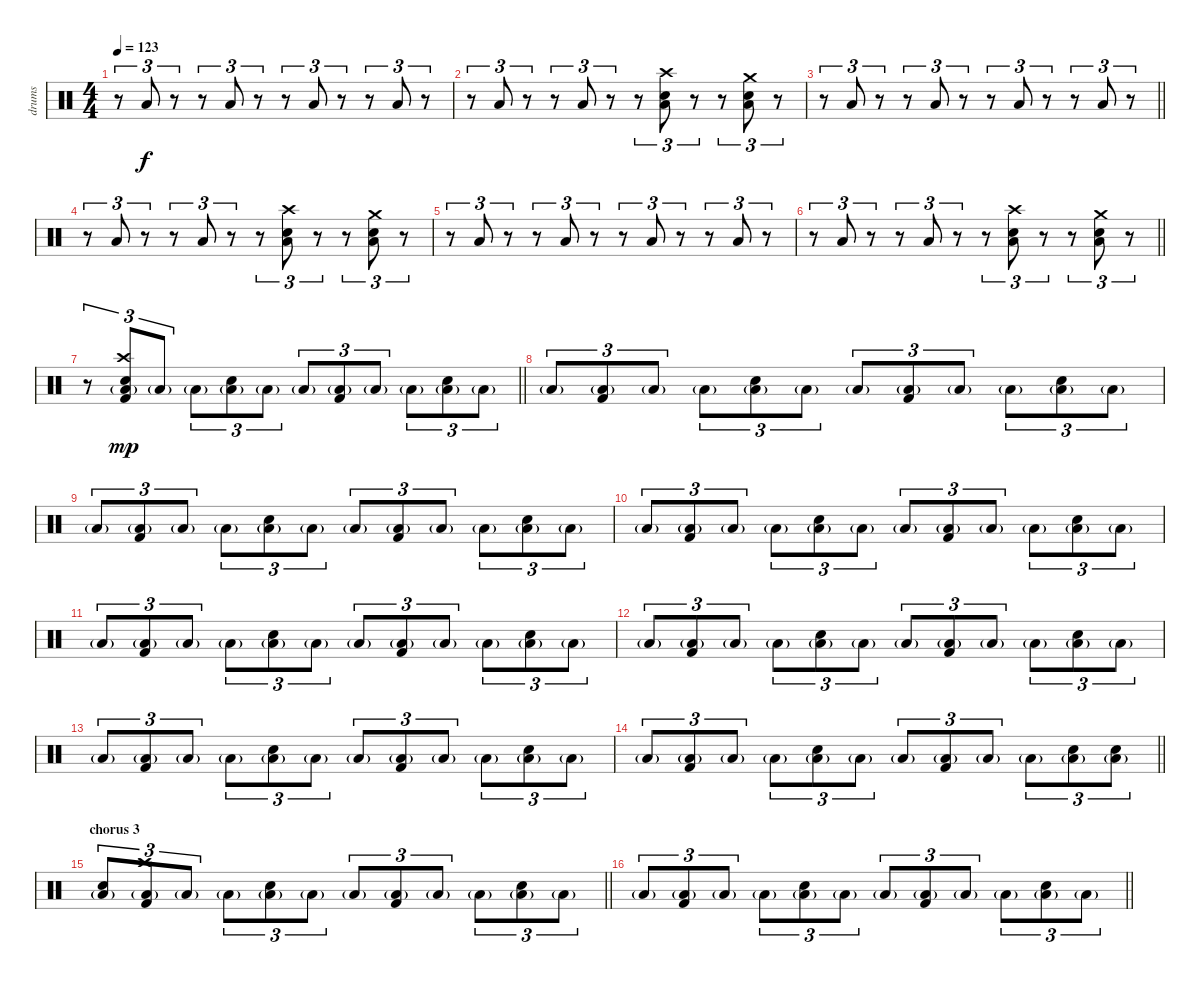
\track ("drums" "drums") {instrument percussion}
\staff {score}
\articulation defaults
\ts (4 4)
\tempo 123
\clef neutral
\ks c
r.8{tu (3 2) dy f} "Low Floor Tom (hit)".8{tu (3 2)} r.8{tu (3 2)} r.8{tu (3 2)} "Low Floor Tom (hit)".8{tu (3 2)} r.8{tu (3 2)} r.8{tu (3 2)} "Low Floor Tom (hit)".8{tu (3 2)} r.8{tu (3 2)} r.8{tu (3 2)} "Low Floor Tom (hit)".8{tu (3 2)} r.8{tu (3 2)} |
r.8{tu (3 2)} "Low Floor Tom (hit)".8{tu (3 2)} r.8{tu (3 2)} r.8{tu (3 2)} "Low Floor Tom (hit)".8{tu (3 2)} r.8{tu (3 2)} r.8{tu (3 2)} ("Low Floor Tom (hit)" "Electric Snare (hit)" "Crash high (hit)").8{tu (3 2)} r.8{tu (3 2)} r.8{tu (3 2)} ("Low Floor Tom (hit)" "Electric Snare (hit)" "Crash medium (hit)").8{tu (3 2)} r.8{tu (3 2)} |
\barLineRight lightlight
r.8{tu (3 2)} "Low Floor Tom (hit)".8{tu (3 2)} r.8{tu (3 2)} r.8{tu (3 2)} "Low Floor Tom (hit)".8{tu (3 2)} r.8{tu (3 2)} r.8{tu (3 2)} "Low Floor Tom (hit)".8{tu (3 2)} r.8{tu (3 2)} r.8{tu (3 2)} "Low Floor Tom (hit)".8{tu (3 2)} r.8{tu (3 2)} |
r.8{tu (3 2)} "Low Floor Tom (hit)".8{tu (3 2)} r.8{tu (3 2)} r.8{tu (3 2)} "Low Floor Tom (hit)".8{tu (3 2)} r.8{tu (3 2)} r.8{tu (3 2)} ("Low Floor Tom (hit)" "Electric Snare (hit)" "Crash high (hit)").8{tu (3 2)} r.8{tu (3 2)} r.8{tu (3 2)} ("Low Floor Tom (hit)" "Electric Snare (hit)" "Crash medium (hit)").8{tu (3 2)} r.8{tu (3 2)} |
r.8{tu (3 2)} "Low Floor Tom (hit)".8{tu (3 2)} r.8{tu (3 2)} r.8{tu (3 2)} "Low Floor Tom (hit)".8{tu (3 2)} r.8{tu (3 2)} r.8{tu (3 2)} "Low Floor Tom (hit)".8{tu (3 2)} r.8{tu (3 2)} r.8{tu (3 2)} "Low Floor Tom (hit)".8{tu (3 2)} r.8{tu (3 2)} |
\barLineRight lightlight
r.8{tu (3 2)} "Low Floor Tom (hit)".8{tu (3 2)} r.8{tu (3 2)} r.8{tu (3 2)} "Low Floor Tom (hit)".8{tu (3 2)} r.8{tu (3 2)} r.8{tu (3 2)} ("Low Floor Tom (hit)" "Electric Snare (hit)" "Crash high (hit)").8{tu (3 2)} r.8{tu (3 2)} r.8{tu (3 2)} ("Low Floor Tom (hit)" "Electric Snare (hit)" "Crash medium (hit)").8{tu (3 2)} r.8{tu (3 2)} |
\barLineRight lightlight
r.8{tu (3 2)} ("Low Floor Tom (hit)"{g} "Kick (hit) 2" "Electric Snare (hit)" "Crash high (hit)").8{tu (3 2) dy mp} "Low Floor Tom (hit)"{g}.8{tu (3 2)} "Low Floor Tom (hit)"{g}.8{tu (3 2)} ("Low Floor Tom (hit)"{g} "Electric Snare (hit)").8{tu (3 2)} "Low Floor Tom (hit)"{g}.8{tu (3 2)} "Low Floor Tom (hit)"{g}.8{tu (3 2)} ("Low Floor Tom (hit)"{g} "Kick (hit) 2").8{tu (3 2)} "Low Floor Tom (hit)"{g}.8{tu (3 2)} "Low Floor Tom (hit)"{g}.8{tu (3 2)} ("Low Floor Tom (hit)"{g} "Electric Snare (hit)").8{tu (3 2)} "Low Floor Tom (hit)"{g}.8{tu (3 2)} |
"Low Floor Tom (hit)"{g}.8{tu (3 2)} ("Low Floor Tom (hit)"{g} "Kick (hit) 2").8{tu (3 2)} "Low Floor Tom (hit)"{g}.8{tu (3 2)} "Low Floor Tom (hit)"{g}.8{tu (3 2)} ("Low Floor Tom (hit)"{g} "Electric Snare (hit)").8{tu (3 2)} "Low Floor Tom (hit)"{g}.8{tu (3 2)} "Low Floor Tom (hit)"{g}.8{tu (3 2)} ("Low Floor Tom (hit)"{g} "Kick (hit) 2").8{tu (3 2)} "Low Floor Tom (hit)"{g}.8{tu (3 2)} "Low Floor Tom (hit)"{g}.8{tu (3 2)} ("Low Floor Tom (hit)"{g} "Electric Snare (hit)").8{tu (3 2)} "Low Floor Tom (hit)"{g}.8{tu (3 2)} |
"Low Floor Tom (hit)"{g}.8{tu (3 2)} ("Low Floor Tom (hit)"{g} "Kick (hit) 2").8{tu (3 2)} "Low Floor Tom (hit)"{g}.8{tu (3 2)} "Low Floor Tom (hit)"{g}.8{tu (3 2)} ("Low Floor Tom (hit)"{g} "Electric Snare (hit)").8{tu (3 2)} "Low Floor Tom (hit)"{g}.8{tu (3 2)} "Low Floor Tom (hit)"{g}.8{tu (3 2)} ("Low Floor Tom (hit)"{g} "Kick (hit) 2").8{tu (3 2)} "Low Floor Tom (hit)"{g}.8{tu (3 2)} "Low Floor Tom (hit)"{g}.8{tu (3 2)} ("Low Floor Tom (hit)"{g} "Electric Snare (hit)").8{tu (3 2)} "Low Floor Tom (hit)"{g}.8{tu (3 2)} |
"Low Floor Tom (hit)"{g}.8{tu (3 2)} ("Low Floor Tom (hit)"{g} "Kick (hit) 2").8{tu (3 2)} "Low Floor Tom (hit)"{g}.8{tu (3 2)} "Low Floor Tom (hit)"{g}.8{tu (3 2)} ("Low Floor Tom (hit)"{g} "Electric Snare (hit)").8{tu (3 2)} "Low Floor Tom (hit)"{g}.8{tu (3 2)} "Low Floor Tom (hit)"{g}.8{tu (3 2)} ("Low Floor Tom (hit)"{g} "Kick (hit) 2").8{tu (3 2)} "Low Floor Tom (hit)"{g}.8{tu (3 2)} "Low Floor Tom (hit)"{g}.8{tu (3 2)} ("Low Floor Tom (hit)"{g} "Electric Snare (hit)").8{tu (3 2)} "Low Floor Tom (hit)"{g}.8{tu (3 2)} |
"Low Floor Tom (hit)"{g}.8{tu (3 2)} ("Low Floor Tom (hit)"{g} "Kick (hit) 2").8{tu (3 2)} "Low Floor Tom (hit)"{g}.8{tu (3 2)} "Low Floor Tom (hit)"{g}.8{tu (3 2)} ("Low Floor Tom (hit)"{g} "Electric Snare (hit)").8{tu (3 2)} "Low Floor Tom (hit)"{g}.8{tu (3 2)} "Low Floor Tom (hit)"{g}.8{tu (3 2)} ("Low Floor Tom (hit)"{g} "Kick (hit) 2").8{tu (3 2)} "Low Floor Tom (hit)"{g}.8{tu (3 2)} "Low Floor Tom (hit)"{g}.8{tu (3 2)} ("Low Floor Tom (hit)"{g} "Electric Snare (hit)").8{tu (3 2)} "Low Floor Tom (hit)"{g}.8{tu (3 2)} |
"Low Floor Tom (hit)"{g}.8{tu (3 2)} ("Low Floor Tom (hit)"{g} "Kick (hit) 2").8{tu (3 2)} "Low Floor Tom (hit)"{g}.8{tu (3 2)} "Low Floor Tom (hit)"{g}.8{tu (3 2)} ("Low Floor Tom (hit)"{g} "Electric Snare (hit)").8{tu (3 2)} "Low Floor Tom (hit)"{g}.8{tu (3 2)} "Low Floor Tom (hit)"{g}.8{tu (3 2)} ("Low Floor Tom (hit)"{g} "Kick (hit) 2").8{tu (3 2)} "Low Floor Tom (hit)"{g}.8{tu (3 2)} "Low Floor Tom (hit)"{g}.8{tu (3 2)} ("Low Floor Tom (hit)"{g} "Electric Snare (hit)").8{tu (3 2)} "Low Floor Tom (hit)"{g}.8{tu (3 2)} |
"Low Floor Tom (hit)"{g}.8{tu (3 2)} ("Low Floor Tom (hit)"{g} "Kick (hit) 2").8{tu (3 2)} "Low Floor Tom (hit)"{g}.8{tu (3 2)} "Low Floor Tom (hit)"{g}.8{tu (3 2)} ("Low Floor Tom (hit)"{g} "Electric Snare (hit)").8{tu (3 2)} "Low Floor Tom (hit)"{g}.8{tu (3 2)} "Low Floor Tom (hit)"{g}.8{tu (3 2)} ("Low Floor Tom (hit)"{g} "Kick (hit) 2").8{tu (3 2)} "Low Floor Tom (hit)"{g}.8{tu (3 2)} "Low Floor Tom (hit)"{g}.8{tu (3 2)} ("Low Floor Tom (hit)"{g} "Electric Snare (hit)").8{tu (3 2)} "Low Floor Tom (hit)"{g}.8{tu (3 2)} |
\barLineRight lightlight "Low Floor Tom (hit)"{g}.8{tu (3 2)}
("Low Floor Tom (hit)"{g} "Kick (hit) 2").8{tu (3 2)} "Low Floor Tom (hit)"{g}.8{tu (3 2)} "Low Floor Tom (hit)"{g}.8{tu (3 2)} ("Low Floor Tom (hit)"{g} "Electric Snare (hit)").8{tu (3 2)} "Low Floor Tom (hit)"{g}.8{tu (3 2)} "Low Floor Tom (hit)"{g}.8{tu (3 2)} ("Low Floor Tom (hit)"{g} "Kick (hit) 2").8{tu (3 2)} "Low Floor Tom (hit)"{g}.8{tu (3 2)} "Low Floor Tom (hit)"{g}.8{tu (3 2)} ("Low Floor Tom (hit)"{g} "Electric Snare (hit)").8{tu (3 2)} ("Low Floor Tom (hit)"{g} "Electric Snare (hit)").8{tu (3 2)} |
\section ("" "chorus 3")
\barLineRight lightlight
("Low Floor Tom (hit)"{g} "Electric Snare (hit)").8{tu (3 2)} ("Low Floor Tom (hit)"{g} "Kick (hit) 2" "Crash high (hit)").8{tu (3 2)} "Low Floor Tom (hit)"{g}.8{tu (3 2)} "Low Floor Tom (hit)"{g}.8{tu (3 2)} ("Low Floor Tom (hit)"{g} "Electric Snare (hit)").8{tu (3 2)} "Low Floor Tom (hit)"{g}.8{tu (3 2)} "Low Floor Tom (hit)"{g}.8{tu (3 2)} ("Low Floor Tom (hit)"{g} "Kick (hit) 2").8{tu (3 2)} "Low Floor Tom (hit)"{g}.8{tu (3 2)} "Low Floor Tom (hit)"{g}.8{tu (3 2)} ("Low Floor Tom (hit)"{g} "Electric Snare (hit)").8{tu (3 2)} "Low Floor Tom (hit)"{g}.8{tu (3 2)} |
\barLineRight lightlight "Low Floor Tom (hit)"{g}.8{tu (3 2)}
("Low Floor Tom (hit)"{g} "Kick (hit) 2").8{tu (3 2)} "Low Floor Tom (hit)"{g}.8{tu (3 2)} "Low Floor Tom (hit)"{g}.8{tu (3 2)} ("Low Floor Tom (hit)"{g} "Electric Snare (hit)").8{tu (3 2)} "Low Floor Tom (hit)"{g}.8{tu (3 2)} "Low Floor Tom (hit)"{g}.8{tu (3 2)} ("Low Floor Tom (hit)"{g} "Kick (hit) 2").8{tu (3 2)} "Low Floor Tom (hit)"{g}.8{tu (3 2)} "Low Floor Tom (hit)"{g}.8{tu (3 2)} ("Low Floor Tom (hit)"{g} "Electric Snare (hit)").8{tu (3 2)} "Low Floor Tom (hit)"{g}.8{tu (3 2)}
